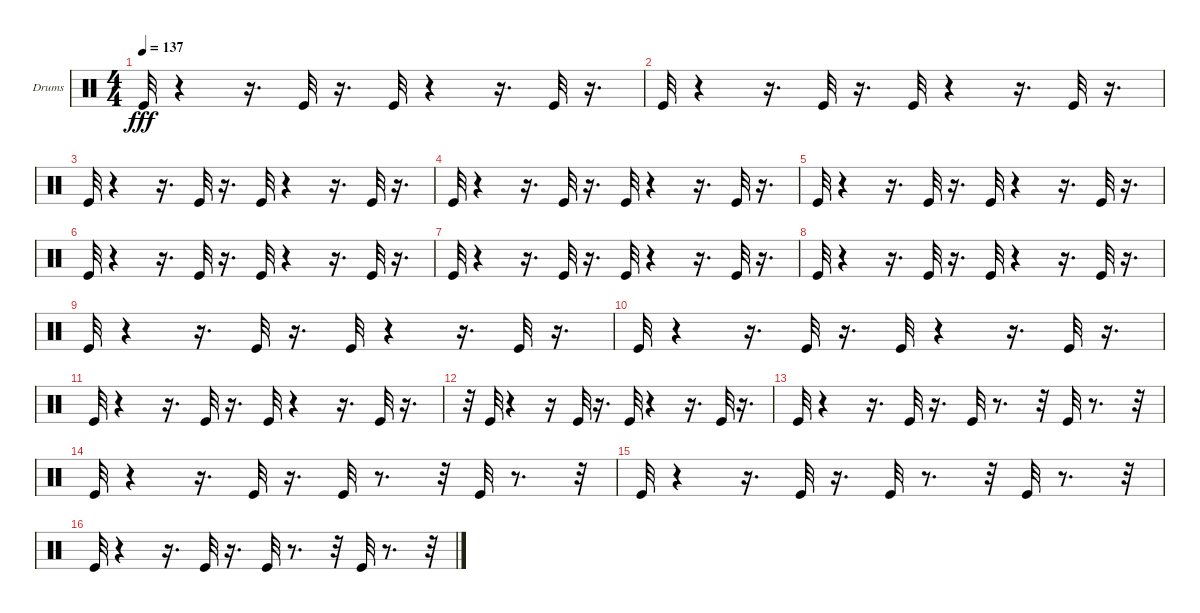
\bracketExtendMode groupsimilarinstruments
\firstSystemTrackNameOrientation horizontal
\otherSystemsTrackNameOrientation horizontal
\track ("Drumkit" "Drums") {instrument percussion}
\staff {score}
\articulation defaults
\ts (4 4)
\tempo 137
\clef neutral
\ks c "Kick (hit)".32{dy fff}
r.4 r.16{d} "Kick (hit)".32 r.16{d} "Kick (hit)".32 r.4 r.16{d} "Kick (hit)".32 r.16{d} |
"Kick (hit)".32 r.4 r.16{d} "Kick (hit)".32 r.16{d} "Kick (hit)".32 r.4 r.16{d} "Kick (hit)".32 r.16{d} |
"Kick (hit)".32 r.4 r.16{d} "Kick (hit)".32 r.16{d} "Kick (hit)".32 r.4 r.16{d} "Kick (hit)".32 r.16{d} |
"Kick (hit)".32 r.4 r.16{d} "Kick (hit)".32 r.16{d} "Kick (hit)".32 r.4 r.16{d} "Kick (hit)".32 r.16{d} |
"Kick (hit)".32 r.4 r.16{d} "Kick (hit)".32 r.16{d} "Kick (hit)".32 r.4 r.16{d} "Kick (hit)".32 r.16{d} |
"Kick (hit)".32 r.4 r.16{d} "Kick (hit)".32 r.16{d} "Kick (hit)".32 r.4 r.16{d} "Kick (hit)".32 r.16{d} |
"Kick (hit)".32 r.4 r.16{d} "Kick (hit)".32 r.16{d} "Kick (hit)".32 r.4 r.16{d} "Kick (hit)".32 r.16{d} |
"Kick (hit)".32 r.4 r.16{d} "Kick (hit)".32 r.16{d} "Kick (hit)".32 r.4 r.16{d} "Kick (hit)".32 r.16{d} |
"Kick (hit)".32 r.4 r.16{d} "Kick (hit)".32 r.16{d} "Kick (hit)".32 r.4 r.16{d} "Kick (hit)".32 r.16{d} |
"Kick (hit)".32 r.4 r.16{d} "Kick (hit)".32 r.16{d} "Kick (hit)".32 r.4 r.16{d} "Kick (hit)".32 r.16{d} |
"Kick (hit)".32 r.4 r.16{d} "Kick (hit)".32 r.16{d} "Kick (hit)".32 r.4 r.16{d} "Kick (hit)".32 r.16{d} |
r.32 "Kick (hit)".32 r.4 r.16 "Kick (hit)".32 r.16{d} "Kick (hit)".32 r.4 r.16{d} "Kick (hit)".32 r.16{d} |
"Kick (hit)".32 r.4 r.16{d} "Kick (hit)".32 r.16{d} "Kick (hit)".32 r.8{d} r.32 "Kick (hit)".32 r.8{d} r.32 |
"Kick (hit)".32 r.4 r.16{d} "Kick (hit)".32 r.16{d} "Kick (hit)".32 r.8{d} r.32 "Kick (hit)".32 r.8{d} r.32 |
"Kick (hit)".32 r.4 r.16{d} "Kick (hit)".32 r.16{d} "Kick (hit)".32 r.8{d} r.32 "Kick (hit)".32 r.8{d} r.32 |
"Kick (hit)".32 r.4 r.16{d} "Kick (hit)".32 r.16{d} "Kick (hit)".32 r.8{d} r.32 "Kick (hit)".32 r.8{d} r.32
